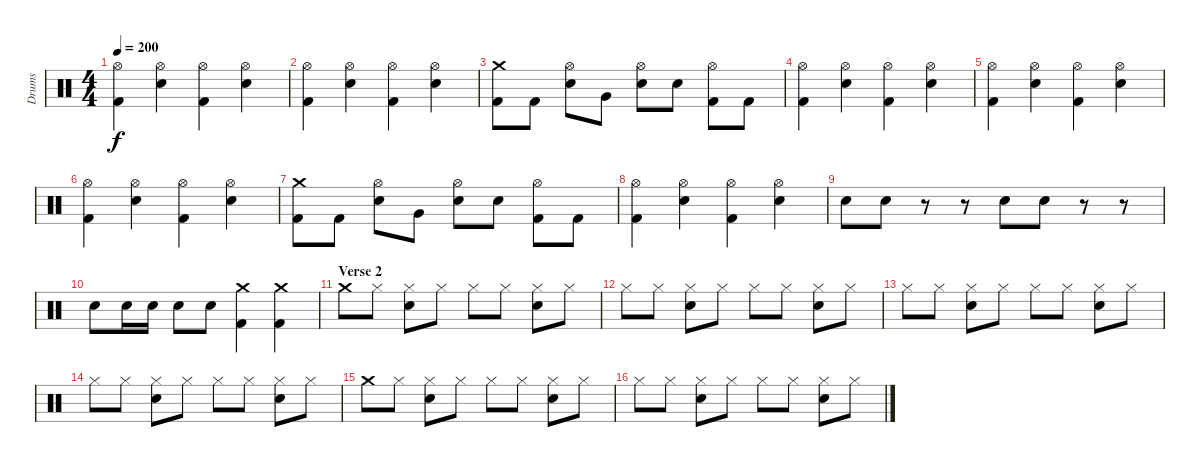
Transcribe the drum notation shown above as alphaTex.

\track ("Drums" "Drums") {instrument percussion}
\staff {score}
\articulation defaults
\ts (4 4)
\tempo 200
\clef neutral
\ks c
("Hi-Hat (open)" "Kick (hit) 2").4{dy f} ("Hi-Hat (open)" "Snare (hit) 2").4 ("Hi-Hat (open)" "Kick (hit) 2").4 ("Hi-Hat (open)" "Snare (hit) 2").4 |
("Hi-Hat (open)" "Kick (hit) 2").4 ("Hi-Hat (open)" "Snare (hit) 2").4 ("Hi-Hat (open)" "Kick (hit) 2").4 ("Hi-Hat (open)" "Snare (hit) 2").4 |
("Crash medium (hit)" "Kick (hit) 2").8 "Kick (hit) 2".8 ("Hi-Hat (open)" "Snare (hit) 2").8 "Very Low Tom (hit)".8 ("Hi-Hat (open)" "Snare (hit) 2").8 "Snare (hit) 2".8 ("Hi-Hat (open)" "Kick (hit) 2").8 "Kick (hit) 2".8 |
("Hi-Hat (open)" "Kick (hit) 2").4 ("Hi-Hat (open)" "Snare (hit) 2").4 ("Hi-Hat (open)" "Kick (hit) 2").4 ("Hi-Hat (open)" "Snare (hit) 2").4 |
("Hi-Hat (open)" "Kick (hit) 2").4 ("Hi-Hat (open)" "Snare (hit) 2").4 ("Hi-Hat (open)" "Kick (hit) 2").4 ("Hi-Hat (open)" "Snare (hit) 2").4 |
("Hi-Hat (open)" "Kick (hit) 2").4 ("Hi-Hat (open)" "Snare (hit) 2").4 ("Hi-Hat (open)" "Kick (hit) 2").4 ("Hi-Hat (open)" "Snare (hit) 2").4 |
("Crash medium (hit)" "Kick (hit) 2").8 "Kick (hit) 2".8 ("Hi-Hat (open)" "Snare (hit) 2").8 "Very Low Tom (hit)".8 ("Hi-Hat (open)" "Snare (hit) 2").8 "Snare (hit) 2".8 ("Hi-Hat (open)" "Kick (hit) 2").8 "Kick (hit) 2".8 |
("Hi-Hat (open)" "Kick (hit) 2").4 ("Hi-Hat (open)" "Snare (hit) 2").4 ("Hi-Hat (open)" "Kick (hit) 2").4 ("Hi-Hat (open)" "Snare (hit) 2").4 |
"Snare (hit) 2".8 "Snare (hit) 2".8 r.8 r.8 "Snare (hit) 2".8 "Snare (hit) 2".8 r.8 r.8 |
"Snare (hit) 2".8 "Snare (hit) 2".16 "Snare (hit) 2".16 "Snare (hit) 2".8 "Snare (hit) 2".8 ("Crash medium (hit)" "Kick (hit) 2").4 ("Crash medium (hit)" "Kick (hit) 2").4 |
\section ("" "Verse 2")
"Crash medium (hit)".8 "Hi-Hat (closed)".8 ("Hi-Hat (closed)" "Snare (hit) 2").8 "Hi-Hat (closed)".8 "Hi-Hat (closed)".8 "Hi-Hat (closed)".8 ("Hi-Hat (closed)" "Snare (hit) 2").8 "Hi-Hat (closed)".8 |
"Hi-Hat (closed)".8 "Hi-Hat (closed)".8 ("Hi-Hat (closed)" "Snare (hit) 2").8 "Hi-Hat (closed)".8 "Hi-Hat (closed)".8 "Hi-Hat (closed)".8 ("Hi-Hat (closed)" "Snare (hit) 2").8 "Hi-Hat (closed)".8 |
"Hi-Hat (closed)".8 "Hi-Hat (closed)".8 ("Hi-Hat (closed)" "Snare (hit) 2").8 "Hi-Hat (closed)".8 "Hi-Hat (closed)".8 "Hi-Hat (closed)".8 ("Hi-Hat (closed)" "Snare (hit) 2").8 "Hi-Hat (closed)".8 |
"Hi-Hat (closed)".8 "Hi-Hat (closed)".8 ("Hi-Hat (closed)" "Snare (hit) 2").8 "Hi-Hat (closed)".8 "Hi-Hat (closed)".8 "Hi-Hat (closed)".8 ("Hi-Hat (closed)" "Snare (hit) 2").8 "Hi-Hat (closed)".8 |
"Crash medium (hit)".8 "Hi-Hat (closed)".8 ("Hi-Hat (closed)" "Snare (hit) 2").8 "Hi-Hat (closed)".8 "Hi-Hat (closed)".8 "Hi-Hat (closed)".8 ("Hi-Hat (closed)" "Snare (hit) 2").8 "Hi-Hat (closed)".8 |
"Hi-Hat (closed)".8 "Hi-Hat (closed)".8 ("Hi-Hat (closed)" "Snare (hit) 2").8 "Hi-Hat (closed)".8 "Hi-Hat (closed)".8 "Hi-Hat (closed)".8 ("Hi-Hat (closed)" "Snare (hit) 2").8 "Hi-Hat (closed)".8
